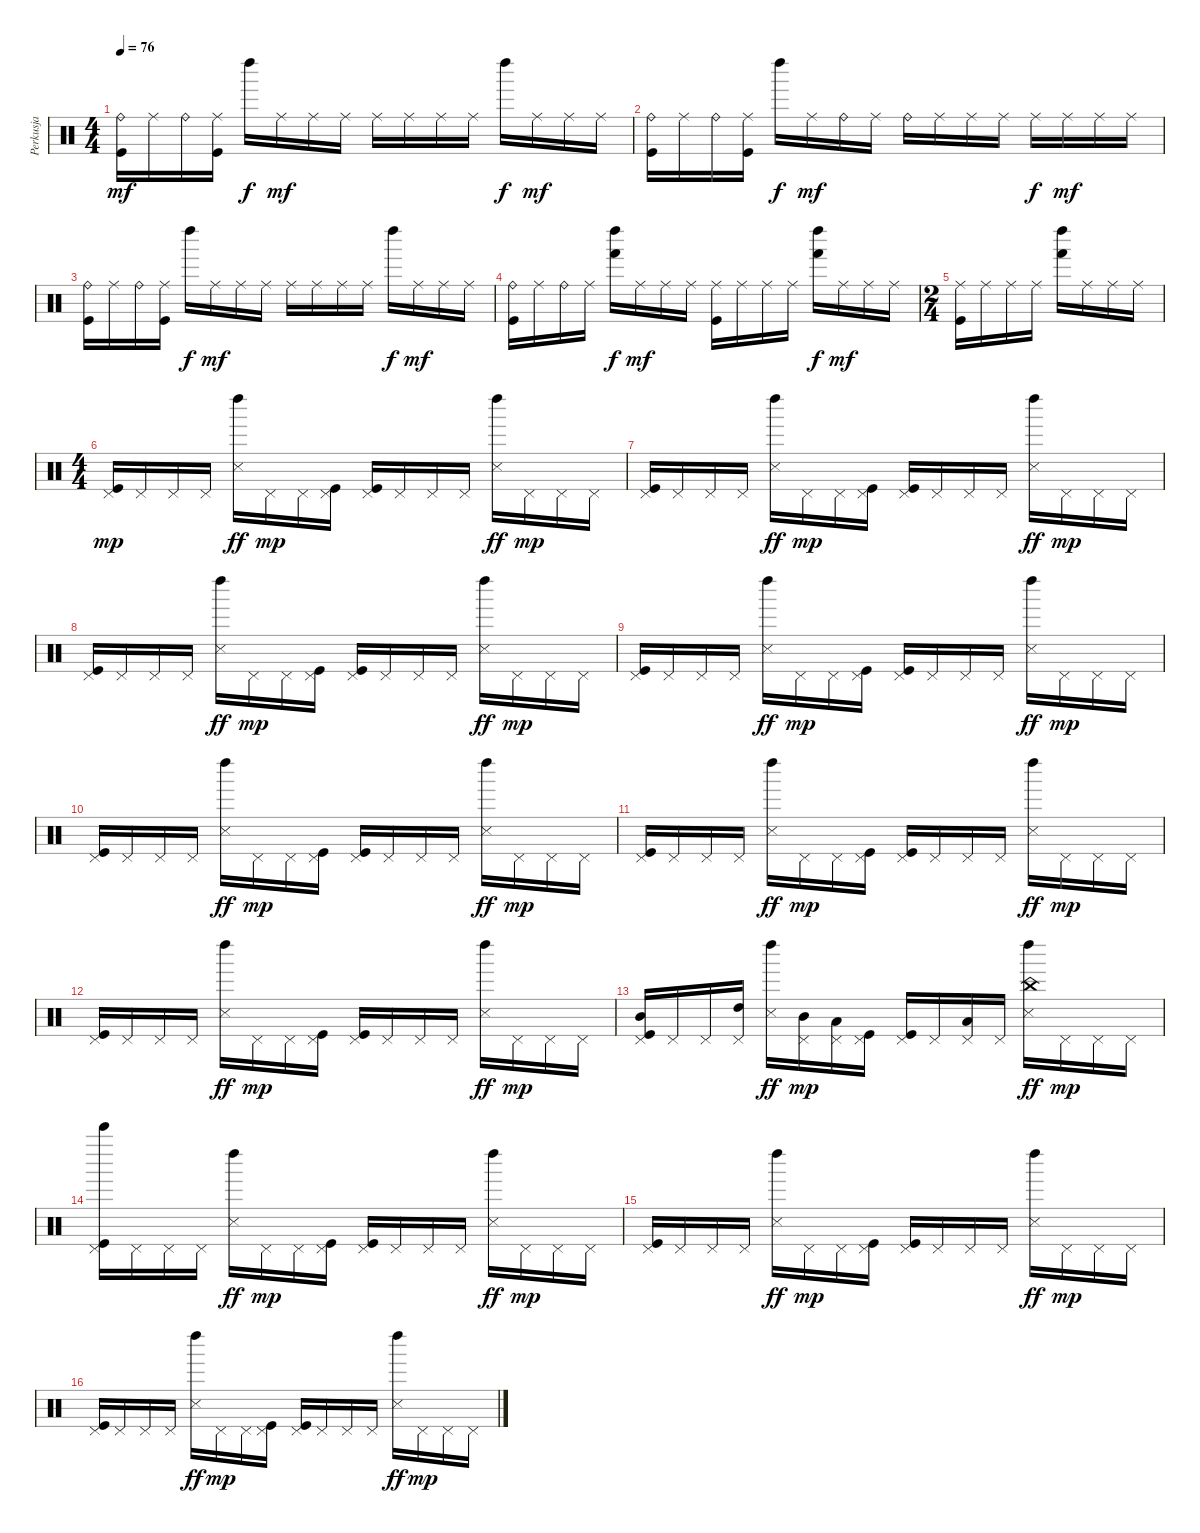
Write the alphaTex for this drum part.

\track ("Perkusja" "Perkusja") {instrument percussion}
\staff {score}
\articulation defaults
\ts (4 4)
\tempo 76
\clef neutral
\ks c
("Kick (hit)" "Ride (bell)").16{dy mf} "Ride (middle)".16 "Ride (bell)".16 ("Kick (hit)" "Ride (middle)").16 "Left Maraca (hit)".16{dy f} "Ride (middle)".16{dy mf} "Ride (middle)".16 "Ride (middle)".16 "Ride (middle)".16 "Ride (middle)".16 "Ride (middle)".16 "Ride (middle)".16 "Left Maraca (hit)".16{dy f} "Ride (middle)".16{dy mf} "Ride (middle)".16 "Ride (middle)".16 |
("Kick (hit)" "Ride (bell)").16 "Ride (middle)".16 "Ride (bell)".16 ("Kick (hit)" "Ride (middle)").16 "Left Maraca (hit)".16{dy f} "Ride (middle)".16{dy mf} "Ride (bell)".16 "Ride (middle)".16 "Ride (bell)".16 "Ride (middle)".16 "Ride (middle)".16 "Ride (middle)".16 "Ride (middle)".16{dy f} "Ride (middle)".16{dy mf} "Ride (middle)".16 "Ride (middle)".16 |
("Kick (hit)" "Ride (bell)").16 "Ride (middle)".16 "Ride (bell)".16 ("Kick (hit)" "Ride (middle)").16 "Left Maraca (hit)".16{dy f} "Ride (middle)".16{dy mf} "Ride (middle)".16 "Ride (middle)".16 "Ride (middle)".16 "Ride (middle)".16 "Ride (middle)".16 "Ride (middle)".16 "Left Maraca (hit)".16{dy f} "Ride (middle)".16{dy mf} "Ride (middle)".16 "Ride (middle)".16 |
("Kick (hit)" "Ride (bell)").16 "Ride (middle)".16 "Ride (bell)".16 "Ride (middle)".16 ("Hand (hit)" "Left Maraca (hit)").16{dy f} "Ride (middle)".16{dy mf} "Ride (middle)".16 "Ride (middle)".16 ("Kick (hit)" "Ride (middle)").16 "Ride (middle)".16 "Ride (middle)".16 "Ride (middle)".16 ("Hand (hit)" "Left Maraca (hit)").16{dy f} "Ride (middle)".16{dy mf} "Ride (middle)".16 "Ride (middle)".16 |
\ts (2 4)
("Kick (hit)" "Ride (middle)").16 "Ride (middle)".16 "Ride (middle)".16 "Ride (middle)".16 ("Hand (hit)" "Left Maraca (hit)").16 "Ride (middle)".16 "Ride (middle)".16 "Ride (middle)".16 |
\ts (4 4)
("Kick (hit)" "Pedal Hi-Hat (hit)").16{dy mp} "Pedal Hi-Hat (hit)".16 "Pedal Hi-Hat (hit)".16 "Pedal Hi-Hat (hit)".16 ("Snare (side stick) 3" "Left Maraca (hit)").16{dy ff} "Pedal Hi-Hat (hit)".16{dy mp} "Pedal Hi-Hat (hit)".16 ("Kick (hit)" "Pedal Hi-Hat (hit)").16 ("Kick (hit)" "Pedal Hi-Hat (hit)").16 "Pedal Hi-Hat (hit)".16 "Pedal Hi-Hat (hit)".16 "Pedal Hi-Hat (hit)".16 ("Snare (side stick) 3" "Left Maraca (hit)").16{dy ff} "Pedal Hi-Hat (hit)".16{dy mp} "Pedal Hi-Hat (hit)".16 "Pedal Hi-Hat (hit)".16 |
("Kick (hit)" "Pedal Hi-Hat (hit)").16 "Pedal Hi-Hat (hit)".16 "Pedal Hi-Hat (hit)".16 "Pedal Hi-Hat (hit)".16 ("Snare (side stick) 3" "Left Maraca (hit)").16{dy ff} "Pedal Hi-Hat (hit)".16{dy mp} "Pedal Hi-Hat (hit)".16 ("Kick (hit)" "Pedal Hi-Hat (hit)").16 ("Kick (hit)" "Pedal Hi-Hat (hit)").16 "Pedal Hi-Hat (hit)".16 "Pedal Hi-Hat (hit)".16 "Pedal Hi-Hat (hit)".16 ("Snare (side stick) 3" "Left Maraca (hit)").16{dy ff} "Pedal Hi-Hat (hit)".16{dy mp} "Pedal Hi-Hat (hit)".16 "Pedal Hi-Hat (hit)".16 |
("Kick (hit)" "Pedal Hi-Hat (hit)").16 "Pedal Hi-Hat (hit)".16 "Pedal Hi-Hat (hit)".16 "Pedal Hi-Hat (hit)".16 ("Snare (side stick) 3" "Left Maraca (hit)").16{dy ff} "Pedal Hi-Hat (hit)".16{dy mp} "Pedal Hi-Hat (hit)".16 ("Kick (hit)" "Pedal Hi-Hat (hit)").16 ("Kick (hit)" "Pedal Hi-Hat (hit)").16 "Pedal Hi-Hat (hit)".16 "Pedal Hi-Hat (hit)".16 "Pedal Hi-Hat (hit)".16 ("Snare (side stick) 3" "Left Maraca (hit)").16{dy ff} "Pedal Hi-Hat (hit)".16{dy mp} "Pedal Hi-Hat (hit)".16 "Pedal Hi-Hat (hit)".16 |
("Kick (hit)" "Pedal Hi-Hat (hit)").16 "Pedal Hi-Hat (hit)".16 "Pedal Hi-Hat (hit)".16 "Pedal Hi-Hat (hit)".16 ("Snare (side stick) 3" "Left Maraca (hit)").16{dy ff} "Pedal Hi-Hat (hit)".16{dy mp} "Pedal Hi-Hat (hit)".16 ("Kick (hit)" "Pedal Hi-Hat (hit)").16 ("Kick (hit)" "Pedal Hi-Hat (hit)").16 "Pedal Hi-Hat (hit)".16 "Pedal Hi-Hat (hit)".16 "Pedal Hi-Hat (hit)".16 ("Snare (side stick) 3" "Left Maraca (hit)").16{dy ff} "Pedal Hi-Hat (hit)".16{dy mp} "Pedal Hi-Hat (hit)".16 "Pedal Hi-Hat (hit)".16 |
("Kick (hit)" "Pedal Hi-Hat (hit)").16 "Pedal Hi-Hat (hit)".16 "Pedal Hi-Hat (hit)".16 "Pedal Hi-Hat (hit)".16 ("Snare (side stick) 3" "Left Maraca (hit)").16{dy ff} "Pedal Hi-Hat (hit)".16{dy mp} "Pedal Hi-Hat (hit)".16 ("Kick (hit)" "Pedal Hi-Hat (hit)").16 ("Kick (hit)" "Pedal Hi-Hat (hit)").16 "Pedal Hi-Hat (hit)".16 "Pedal Hi-Hat (hit)".16 "Pedal Hi-Hat (hit)".16 ("Snare (side stick) 3" "Left Maraca (hit)").16{dy ff} "Pedal Hi-Hat (hit)".16{dy mp} "Pedal Hi-Hat (hit)".16 "Pedal Hi-Hat (hit)".16 |
("Kick (hit)" "Pedal Hi-Hat (hit)").16 "Pedal Hi-Hat (hit)".16 "Pedal Hi-Hat (hit)".16 "Pedal Hi-Hat (hit)".16 ("Snare (side stick) 3" "Left Maraca (hit)").16{dy ff} "Pedal Hi-Hat (hit)".16{dy mp} "Pedal Hi-Hat (hit)".16 ("Kick (hit)" "Pedal Hi-Hat (hit)").16 ("Kick (hit)" "Pedal Hi-Hat (hit)").16 "Pedal Hi-Hat (hit)".16 "Pedal Hi-Hat (hit)".16 "Pedal Hi-Hat (hit)".16 ("Snare (side stick) 3" "Left Maraca (hit)").16{dy ff} "Pedal Hi-Hat (hit)".16{dy mp} "Pedal Hi-Hat (hit)".16 "Pedal Hi-Hat (hit)".16 |
("Kick (hit)" "Pedal Hi-Hat (hit)").16 "Pedal Hi-Hat (hit)".16 "Pedal Hi-Hat (hit)".16 "Pedal Hi-Hat (hit)".16 ("Snare (side stick) 3" "Left Maraca (hit)").16{dy ff} "Pedal Hi-Hat (hit)".16{dy mp} "Pedal Hi-Hat (hit)".16 ("Kick (hit)" "Pedal Hi-Hat (hit)").16 ("Kick (hit)" "Pedal Hi-Hat (hit)").16 "Pedal Hi-Hat (hit)".16 "Pedal Hi-Hat (hit)".16 "Pedal Hi-Hat (hit)".16 ("Snare (side stick) 3" "Left Maraca (hit)").16{dy ff} "Pedal Hi-Hat (hit)".16{dy mp} "Pedal Hi-Hat (hit)".16 "Pedal Hi-Hat (hit)".16 |
("Kick (hit)" "Mid Tom (hit)" "Pedal Hi-Hat (hit)").16 "Pedal Hi-Hat (hit)".16 "Pedal Hi-Hat (hit)".16 ("High Tom (hit)" "Pedal Hi-Hat (hit)").16 ("Snare (side stick) 3" "Left Maraca (hit)").16{dy ff} ("Mid Tom (hit)" "Pedal Hi-Hat (hit)").16{dy mp} ("Low Tom (hit)" "Pedal Hi-Hat (hit)").16 ("Kick (hit)" "Pedal Hi-Hat (hit)").16 ("Kick (hit)" "Pedal Hi-Hat (hit)").16 "Pedal Hi-Hat (hit)".16 ("Low Tom (hit)" "Pedal Hi-Hat (hit)").16 "Pedal Hi-Hat (hit)".16 ("Snare (side stick) 3" "China (hit)" "Left Maraca (hit)").16{dy ff} "Pedal Hi-Hat (hit)".16{dy mp} "Pedal Hi-Hat (hit)".16 "Pedal Hi-Hat (hit)".16 |
("Kick (hit)" "Bell Tree (hit)" "Pedal Hi-Hat (hit)").16 "Pedal Hi-Hat (hit)".16 "Pedal Hi-Hat (hit)".16 "Pedal Hi-Hat (hit)".16 ("Snare (side stick) 3" "Left Maraca (hit)").16{dy ff} "Pedal Hi-Hat (hit)".16{dy mp} "Pedal Hi-Hat (hit)".16 ("Kick (hit)" "Pedal Hi-Hat (hit)").16 ("Kick (hit)" "Pedal Hi-Hat (hit)").16 "Pedal Hi-Hat (hit)".16 "Pedal Hi-Hat (hit)".16 "Pedal Hi-Hat (hit)".16 ("Snare (side stick) 3" "Left Maraca (hit)").16{dy ff} "Pedal Hi-Hat (hit)".16{dy mp} "Pedal Hi-Hat (hit)".16 "Pedal Hi-Hat (hit)".16 |
("Kick (hit)" "Pedal Hi-Hat (hit)").16 "Pedal Hi-Hat (hit)".16 "Pedal Hi-Hat (hit)".16 "Pedal Hi-Hat (hit)".16 ("Snare (side stick) 3" "Left Maraca (hit)").16{dy ff} "Pedal Hi-Hat (hit)".16{dy mp} "Pedal Hi-Hat (hit)".16 ("Kick (hit)" "Pedal Hi-Hat (hit)").16 ("Kick (hit)" "Pedal Hi-Hat (hit)").16 "Pedal Hi-Hat (hit)".16 "Pedal Hi-Hat (hit)".16 "Pedal Hi-Hat (hit)".16 ("Snare (side stick) 3" "Left Maraca (hit)").16{dy ff} "Pedal Hi-Hat (hit)".16{dy mp} "Pedal Hi-Hat (hit)".16 "Pedal Hi-Hat (hit)".16 |
("Kick (hit)" "Pedal Hi-Hat (hit)").16 "Pedal Hi-Hat (hit)".16 "Pedal Hi-Hat (hit)".16 "Pedal Hi-Hat (hit)".16 ("Snare (side stick) 3" "Left Maraca (hit)").16{dy ff} "Pedal Hi-Hat (hit)".16{dy mp} "Pedal Hi-Hat (hit)".16 ("Kick (hit)" "Pedal Hi-Hat (hit)").16 ("Kick (hit)" "Pedal Hi-Hat (hit)").16 "Pedal Hi-Hat (hit)".16 "Pedal Hi-Hat (hit)".16 "Pedal Hi-Hat (hit)".16 ("Snare (side stick) 3" "Left Maraca (hit)").16{dy ff} "Pedal Hi-Hat (hit)".16{dy mp} "Pedal Hi-Hat (hit)".16 "Pedal Hi-Hat (hit)".16
